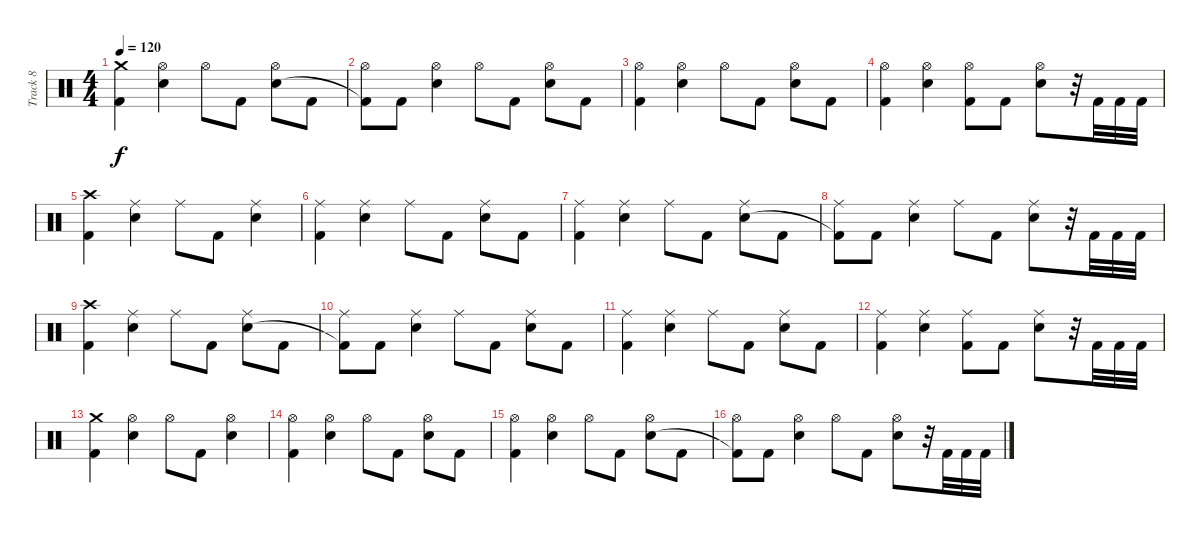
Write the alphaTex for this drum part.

\track ("Track 8" "Track 8") {instrument percussion}
\staff {score}
\articulation defaults
\ts (4 4)
\tempo 120
\clef neutral
\ks c
("Crash medium (hit)" "Kick (hit) 2").4{dy f} ("Hi-Hat (open)" "Electric Snare (hit)").4 "Hi-Hat (open)".8 "Kick (hit) 2".8 ("Hi-Hat (open)" "Electric Snare (hit)").8 "Kick (hit) 2".8 |
("Hi-Hat (open)" "Kick (hit) 2"{t}).8 "Kick (hit) 2".8 ("Hi-Hat (open)" "Electric Snare (hit)").4 "Hi-Hat (open)".8 "Kick (hit) 2".8 ("Hi-Hat (open)" "Electric Snare (hit)").8 "Kick (hit) 2".8 |
("Hi-Hat (open)" "Kick (hit) 2").4 ("Hi-Hat (open)" "Electric Snare (hit)").4 "Hi-Hat (open)".8 "Kick (hit) 2".8 ("Hi-Hat (open)" "Electric Snare (hit)").8 "Kick (hit) 2".8 |
("Hi-Hat (open)" "Kick (hit) 2").4 ("Hi-Hat (open)" "Electric Snare (hit)").4 ("Hi-Hat (open)" "Kick (hit) 2").8 "Kick (hit) 2".8 ("Hi-Hat (open)" "Electric Snare (hit)").8 r.32 "Kick (hit) 2".32 "Kick (hit) 2".32 "Kick (hit) 2".32 |
("Crash high (hit)" "Kick (hit) 2").4 ("Ride (middle)" "Electric Snare (hit)").4 "Ride (middle)".8 "Kick (hit) 2".8 ("Ride (middle)" "Electric Snare (hit)").4 |
("Ride (middle)" "Kick (hit) 2").4 ("Ride (middle)" "Electric Snare (hit)").4 "Ride (middle)".8 "Kick (hit) 2".8 ("Ride (middle)" "Electric Snare (hit)").8 "Kick (hit) 2".8 |
("Ride (middle)" "Kick (hit) 2").4 ("Ride (middle)" "Electric Snare (hit)").4 "Ride (middle)".8 "Kick (hit) 2".8 ("Ride (middle)" "Electric Snare (hit)").8 "Kick (hit) 2".8 |
("Ride (middle)" "Kick (hit) 2"{t}).8 "Kick (hit) 2".8 ("Ride (middle)" "Electric Snare (hit)").4 "Ride (middle)".8 "Kick (hit) 2".8 ("Ride (middle)" "Electric Snare (hit)").8 r.32 "Kick (hit) 2".32 "Kick (hit) 2".32 "Kick (hit) 2".32 |
("Crash high (hit)" "Kick (hit) 2").4 ("Ride (middle)" "Electric Snare (hit)").4 "Ride (middle)".8 "Kick (hit) 2".8 ("Ride (middle)" "Electric Snare (hit)").8 "Kick (hit) 2".8 |
("Ride (middle)" "Kick (hit) 2"{t}).8 "Kick (hit) 2".8 ("Ride (middle)" "Electric Snare (hit)").4 "Ride (middle)".8 "Kick (hit) 2".8 ("Ride (middle)" "Electric Snare (hit)").8 "Kick (hit) 2".8 |
("Ride (middle)" "Kick (hit) 2").4 ("Ride (middle)" "Electric Snare (hit)").4 "Ride (middle)".8 "Kick (hit) 2".8 ("Ride (middle)" "Electric Snare (hit)").8 "Kick (hit) 2".8 |
("Ride (middle)" "Kick (hit) 2").4 ("Ride (middle)" "Electric Snare (hit)").4 ("Ride (middle)" "Kick (hit) 2").8 "Kick (hit) 2".8 ("Ride (middle)" "Electric Snare (hit)").8 r.32 "Kick (hit) 2".32 "Kick (hit) 2".32 "Kick (hit) 2".32 |
("Crash medium (hit)" "Kick (hit) 2").4 ("Hi-Hat (open)" "Electric Snare (hit)").4 "Hi-Hat (open)".8 "Kick (hit) 2".8 ("Hi-Hat (open)" "Electric Snare (hit)").4 |
("Hi-Hat (open)" "Kick (hit) 2").4 ("Hi-Hat (open)" "Electric Snare (hit)").4 "Hi-Hat (open)".8 "Kick (hit) 2".8 ("Hi-Hat (open)" "Electric Snare (hit)").8 "Kick (hit) 2".8 |
("Hi-Hat (open)" "Kick (hit) 2").4 ("Hi-Hat (open)" "Electric Snare (hit)").4 "Hi-Hat (open)".8 "Kick (hit) 2".8 ("Hi-Hat (open)" "Electric Snare (hit)").8 "Kick (hit) 2".8 |
("Hi-Hat (open)" "Kick (hit) 2"{t}).8 "Kick (hit) 2".8 ("Hi-Hat (open)" "Electric Snare (hit)").4 "Hi-Hat (open)".8 "Kick (hit) 2".8 ("Hi-Hat (open)" "Electric Snare (hit)").8 r.32 "Kick (hit) 2".32 "Kick (hit) 2".32 "Kick (hit) 2".32
